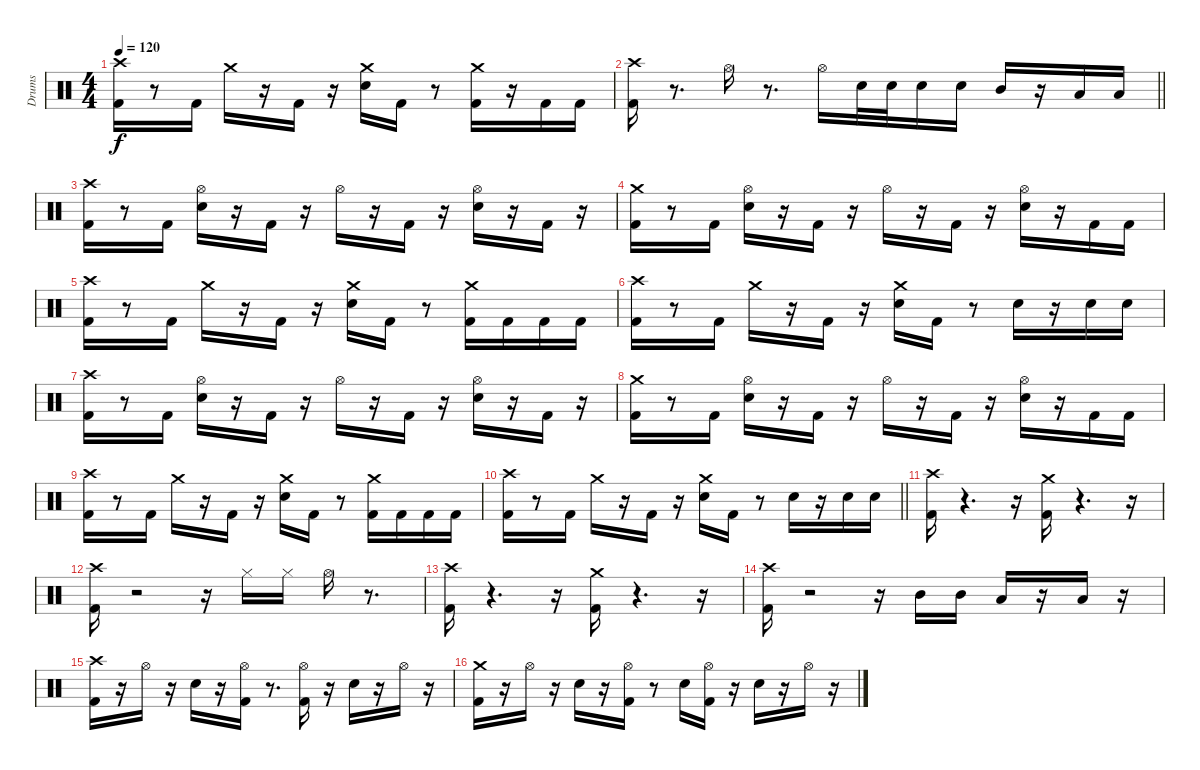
\track ("Drums" "Drums") {instrument percussion}
\staff {score}
\articulation defaults
\ts (4 4)
\tempo 120
\clef neutral
\ks c
("Kick (hit) 2" "Crash high (hit)").16{dy f} r.8 "Kick (hit) 2".16 "Crash medium (hit)".16 r.16 "Kick (hit) 2".16 r.16 ("Snare (hit) 2" "Crash medium (hit)").16 "Kick (hit) 2".16 r.8 ("Kick (hit) 2" "Crash medium (hit)").16 r.16 "Kick (hit) 2".16 "Kick (hit) 2".16 |
\barLineRight lightlight
("Kick (hit) 2" "Crash high (hit)").16 r.8{d} "Hi-Hat (open)".16 r.8{d} "Hi-Hat (open)".16 "Snare (hit) 2".32 "Snare (hit) 2".32 "Snare (hit) 2".16 "Snare (hit) 2".16 "Mid Tom (hit)".16 r.16 "Low Tom (hit)".16 "Low Tom (hit)".16 |
\section ("" " ")
("Kick (hit) 2" "Crash high (hit)").16 r.8 "Kick (hit) 2".16 ("Snare (hit) 2" "Hi-Hat (open)").16 r.16 "Kick (hit) 2".16 r.16 "Hi-Hat (open)".16 r.16 "Kick (hit) 2".16 r.16 ("Snare (hit) 2" "Hi-Hat (open)").16 r.16 "Kick (hit) 2".16 r.16 |
("Kick (hit) 2" "Crash medium (hit)").16 r.8 "Kick (hit) 2".16 ("Snare (hit) 2" "Hi-Hat (open)").16 r.16 "Kick (hit) 2".16 r.16 "Hi-Hat (open)".16 r.16 "Kick (hit) 2".16 r.16 ("Snare (hit) 2" "Hi-Hat (open)").16 r.16 "Kick (hit) 2".16 "Kick (hit) 2".16 |
("Kick (hit) 2" "Crash high (hit)").16 r.8 "Kick (hit) 2".16 "Crash medium (hit)".16 r.16 "Kick (hit) 2".16 r.16 ("Snare (hit) 2" "Crash medium (hit)").16 "Kick (hit) 2".16 r.8 ("Kick (hit) 2" "Crash medium (hit)").16 "Kick (hit) 2".16 "Kick (hit) 2".16 "Kick (hit) 2".16 |
("Kick (hit) 2" "Crash high (hit)").16 r.8 "Kick (hit) 2".16 "Crash medium (hit)".16 r.16 "Kick (hit) 2".16 r.16 ("Snare (hit) 2" "Crash medium (hit)").16 "Kick (hit) 2".16 r.8 "Snare (hit) 2".16 r.16 "Snare (hit) 2".16 "Snare (hit) 2".16 |
("Kick (hit) 2" "Crash high (hit)").16 r.8 "Kick (hit) 2".16 ("Snare (hit) 2" "Hi-Hat (open)").16 r.16 "Kick (hit) 2".16 r.16 "Hi-Hat (open)".16 r.16 "Kick (hit) 2".16 r.16 ("Snare (hit) 2" "Hi-Hat (open)").16 r.16 "Kick (hit) 2".16 r.16 |
("Kick (hit) 2" "Crash medium (hit)").16 r.8 "Kick (hit) 2".16 ("Snare (hit) 2" "Hi-Hat (open)").16 r.16 "Kick (hit) 2".16 r.16 "Hi-Hat (open)".16 r.16 "Kick (hit) 2".16 r.16 ("Snare (hit) 2" "Hi-Hat (open)").16 r.16 "Kick (hit) 2".16 "Kick (hit) 2".16 |
("Kick (hit) 2" "Crash high (hit)").16 r.8 "Kick (hit) 2".16 "Crash medium (hit)".16 r.16 "Kick (hit) 2".16 r.16 ("Snare (hit) 2" "Crash medium (hit)").16 "Kick (hit) 2".16 r.8 ("Kick (hit) 2" "Crash medium (hit)").16 "Kick (hit) 2".16 "Kick (hit) 2".16 "Kick (hit) 2".16 |
\barLineRight lightlight
("Kick (hit) 2" "Crash high (hit)").16 r.8 "Kick (hit) 2".16 "Crash medium (hit)".16 r.16 "Kick (hit) 2".16 r.16 ("Snare (hit) 2" "Crash medium (hit)").16 "Kick (hit) 2".16 r.8 "Snare (hit) 2".16 r.16 "Snare (hit) 2".16 "Snare (hit) 2".16 |
\section ("" " ")
("Kick (hit) 2" "Crash high (hit)").16 r.4{d} r.16 ("Kick (hit) 2" "Crash medium (hit)").16 r.4{d} r.16 |
("Kick (hit) 2" "Crash high (hit)").16 r.2 r.16 "Hi-Hat (closed)".16 "Hi-Hat (closed)".16 "Hi-Hat (open)".16 r.8{d} |
("Kick (hit) 2" "Crash high (hit)").16 r.4{d} r.16 ("Kick (hit) 2" "Crash medium (hit)").16 r.4{d} r.16 |
("Kick (hit) 2" "Crash high (hit)").16 r.2 r.16 "Mid Tom (hit)".16 "Mid Tom (hit)".16 "Low Tom (hit)".16 r.16 "Low Tom (hit)".16 r.16 |
("Kick (hit) 2" "Crash high (hit)").16 r.16 "Hi-Hat (open)".16 r.16 "Snare (hit) 2".16 r.16 ("Kick (hit) 2" "Hi-Hat (open)").16 r.8{d} ("Kick (hit) 2" "Hi-Hat (open)").16 r.16 "Snare (hit) 2".16 r.16 "Hi-Hat (open)".16 r.16 |
("Kick (hit) 2" "Crash medium (hit)").16 r.16 "Hi-Hat (open)".16 r.16 "Snare (hit) 2".16 r.16 ("Kick (hit) 2" "Hi-Hat (open)").16 r.8 "Snare (hit) 2".16 ("Kick (hit) 2" "Hi-Hat (open)").16 r.16 "Snare (hit) 2".16 r.16 "Hi-Hat (open)".16 r.16
